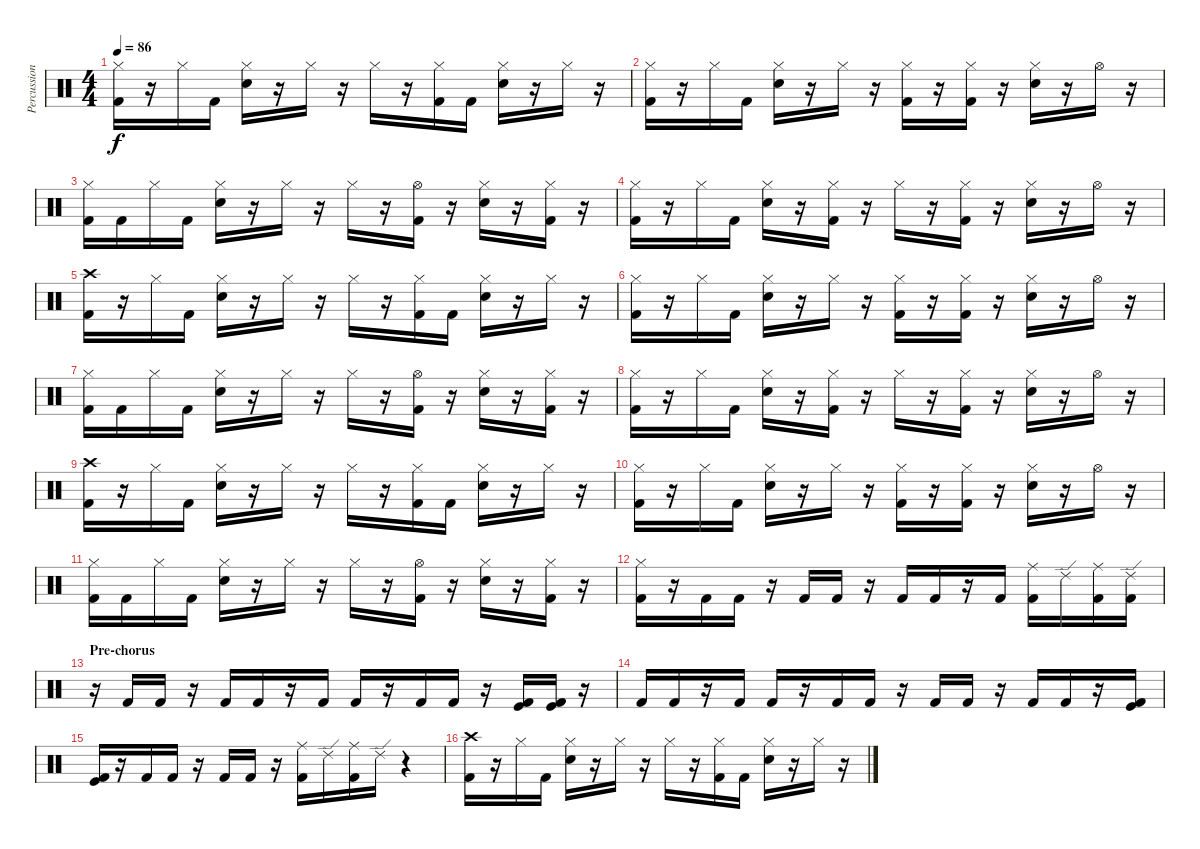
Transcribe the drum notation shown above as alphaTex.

\track ("Percussions" "Percussion") {instrument percussion}
\staff {score}
\articulation defaults
\ts (4 4)
\tempo 86
\clef neutral
\ks c
("Hi-Hat (closed)" "Kick (hit) 2").16{dy f} r.16 "Hi-Hat (closed)".16 "Kick (hit) 2".16 ("Hi-Hat (closed)" "Snare (hit) 2").16 r.16 "Hi-Hat (closed)".16 r.16 "Hi-Hat (closed)".16 r.16 ("Hi-Hat (closed)" "Kick (hit) 2").16 "Kick (hit) 2".16 ("Hi-Hat (closed)" "Snare (hit) 2").16 r.16 "Hi-Hat (closed)".16 r.16 |
("Hi-Hat (closed)" "Kick (hit) 2").16 r.16 "Hi-Hat (closed)".16 "Kick (hit) 2".16 ("Hi-Hat (closed)" "Snare (hit) 2").16 r.16 "Hi-Hat (closed)".16 r.16 ("Hi-Hat (closed)" "Kick (hit) 2").16 r.16 ("Hi-Hat (closed)" "Kick (hit) 2").16 r.16 ("Hi-Hat (closed)" "Snare (hit) 2").16 r.16 "Hi-Hat (open)".16 r.16 |
("Hi-Hat (closed)" "Kick (hit) 2").16 "Kick (hit) 2".16 "Hi-Hat (closed)".16 "Kick (hit) 2".16 ("Hi-Hat (closed)" "Snare (hit) 2").16 r.16 "Hi-Hat (closed)".16 r.16 "Hi-Hat (closed)".16 r.16 ("Hi-Hat (open)" "Kick (hit) 2").16 r.16 ("Hi-Hat (closed)" "Snare (hit) 2").16 r.16 ("Hi-Hat (closed)" "Kick (hit) 2").16 r.16 |
("Hi-Hat (closed)" "Kick (hit) 2").16 r.16 "Hi-Hat (closed)".16 "Kick (hit) 2".16 ("Hi-Hat (closed)" "Snare (hit) 2").16 r.16 ("Hi-Hat (closed)" "Kick (hit) 2").16 r.16 "Hi-Hat (closed)".16 r.16 ("Hi-Hat (closed)" "Kick (hit) 2").16 r.16 ("Hi-Hat (closed)" "Snare (hit) 2").16 r.16 "Hi-Hat (open)".16 r.16 |
("Crash high (hit)" "Kick (hit) 2").16 r.16 "Hi-Hat (closed)".16 "Kick (hit) 2".16 ("Hi-Hat (closed)" "Snare (hit) 2").16 r.16 "Hi-Hat (closed)".16 r.16 "Hi-Hat (closed)".16 r.16 ("Hi-Hat (closed)" "Kick (hit) 2").16 "Kick (hit) 2".16 ("Hi-Hat (closed)" "Snare (hit) 2").16 r.16 "Hi-Hat (closed)".16 r.16 |
("Hi-Hat (closed)" "Kick (hit) 2").16 r.16 "Hi-Hat (closed)".16 "Kick (hit) 2".16 ("Hi-Hat (closed)" "Snare (hit) 2").16 r.16 "Hi-Hat (closed)".16 r.16 ("Hi-Hat (closed)" "Kick (hit) 2").16 r.16 ("Hi-Hat (closed)" "Kick (hit) 2").16 r.16 ("Hi-Hat (closed)" "Snare (hit) 2").16 r.16 "Hi-Hat (open)".16 r.16 |
("Hi-Hat (closed)" "Kick (hit) 2").16 "Kick (hit) 2".16 "Hi-Hat (closed)".16 "Kick (hit) 2".16 ("Hi-Hat (closed)" "Snare (hit) 2").16 r.16 "Hi-Hat (closed)".16 r.16 "Hi-Hat (closed)".16 r.16 ("Hi-Hat (open)" "Kick (hit) 2").16 r.16 ("Hi-Hat (closed)" "Snare (hit) 2").16 r.16 ("Hi-Hat (closed)" "Kick (hit) 2").16 r.16 |
("Hi-Hat (closed)" "Kick (hit) 2").16 r.16 "Hi-Hat (closed)".16 "Kick (hit) 2".16 ("Hi-Hat (closed)" "Snare (hit) 2").16 r.16 ("Hi-Hat (closed)" "Kick (hit) 2").16 r.16 "Hi-Hat (closed)".16 r.16 ("Hi-Hat (closed)" "Kick (hit) 2").16 r.16 ("Hi-Hat (closed)" "Snare (hit) 2").16 r.16 "Hi-Hat (open)".16 r.16 |
("Crash high (hit)" "Kick (hit) 2").16 r.16 "Hi-Hat (closed)".16 "Kick (hit) 2".16 ("Hi-Hat (closed)" "Snare (hit) 2").16 r.16 "Hi-Hat (closed)".16 r.16 "Hi-Hat (closed)".16 r.16 ("Hi-Hat (closed)" "Kick (hit) 2").16 "Kick (hit) 2".16 ("Hi-Hat (closed)" "Snare (hit) 2").16 r.16 "Hi-Hat (closed)".16 r.16 |
("Hi-Hat (closed)" "Kick (hit) 2").16 r.16 "Hi-Hat (closed)".16 "Kick (hit) 2".16 ("Hi-Hat (closed)" "Snare (hit) 2").16 r.16 "Hi-Hat (closed)".16 r.16 ("Hi-Hat (closed)" "Kick (hit) 2").16 r.16 ("Hi-Hat (closed)" "Kick (hit) 2").16 r.16 ("Hi-Hat (closed)" "Snare (hit) 2").16 r.16 "Hi-Hat (open)".16 r.16 |
("Hi-Hat (closed)" "Kick (hit) 2").16 "Kick (hit) 2".16 "Hi-Hat (closed)".16 "Kick (hit) 2".16 ("Hi-Hat (closed)" "Snare (hit) 2").16 r.16 "Hi-Hat (closed)".16 r.16 "Hi-Hat (closed)".16 r.16 ("Hi-Hat (open)" "Kick (hit) 2").16 r.16 ("Hi-Hat (closed)" "Snare (hit) 2").16 r.16 ("Hi-Hat (closed)" "Kick (hit) 2").16 r.16 |
("Hi-Hat (closed)" "Kick (hit) 2").16 r.16 "Kick (hit) 2".16 "Kick (hit) 2".16 r.16 "Kick (hit) 2".16 "Kick (hit) 2".16 r.16 "Kick (hit) 2".16 "Kick (hit) 2".16 r.16 "Kick (hit) 2".16 ("Ride (middle)" "Kick (hit) 2").16 "Ride (edge) 2".16 ("Ride (middle)" "Kick (hit) 2").16 ("Ride (edge) 2" "Kick (hit) 2").16 |
\section ("" "Pre-chorus")
r.16 "Kick (hit) 2".16 "Kick (hit) 2".16 r.16 "Kick (hit) 2".16 "Kick (hit) 2".16 r.16 "Kick (hit) 2".16 "Kick (hit) 2".16 r.16 "Kick (hit) 2".16 "Kick (hit) 2".16 r.16 ("Kick (hit)" "Kick (hit) 2").16 ("Kick (hit)" "Kick (hit) 2").16 r.16 |
"Kick (hit) 2".16 "Kick (hit) 2".16 r.16 "Kick (hit) 2".16 "Kick (hit) 2".16 r.16 "Kick (hit) 2".16 "Kick (hit) 2".16 r.16 "Kick (hit) 2".16 "Kick (hit) 2".16 r.16 "Kick (hit) 2".16 "Kick (hit) 2".16 r.16 ("Kick (hit)" "Kick (hit) 2").16 |
("Kick (hit)" "Kick (hit) 2").16 r.16 "Kick (hit) 2".16 "Kick (hit) 2".16 r.16 "Kick (hit) 2".16 "Kick (hit) 2".16 r.16 ("Ride (middle)" "Kick (hit) 2").16 "Ride (edge) 2".16 ("Ride (middle)" "Kick (hit) 2").16 "Ride (edge) 2".16 r.4 |
("Crash high (hit)" "Kick (hit) 2").16 r.16 "Hi-Hat (closed)".16 "Kick (hit) 2".16 ("Hi-Hat (closed)" "Snare (hit) 2").16 r.16 "Hi-Hat (closed)".16 r.16 "Hi-Hat (closed)".16 r.16 ("Hi-Hat (closed)" "Kick (hit) 2").16 "Kick (hit) 2".16 ("Hi-Hat (closed)" "Snare (hit) 2").16 r.16 "Hi-Hat (closed)".16 r.16
